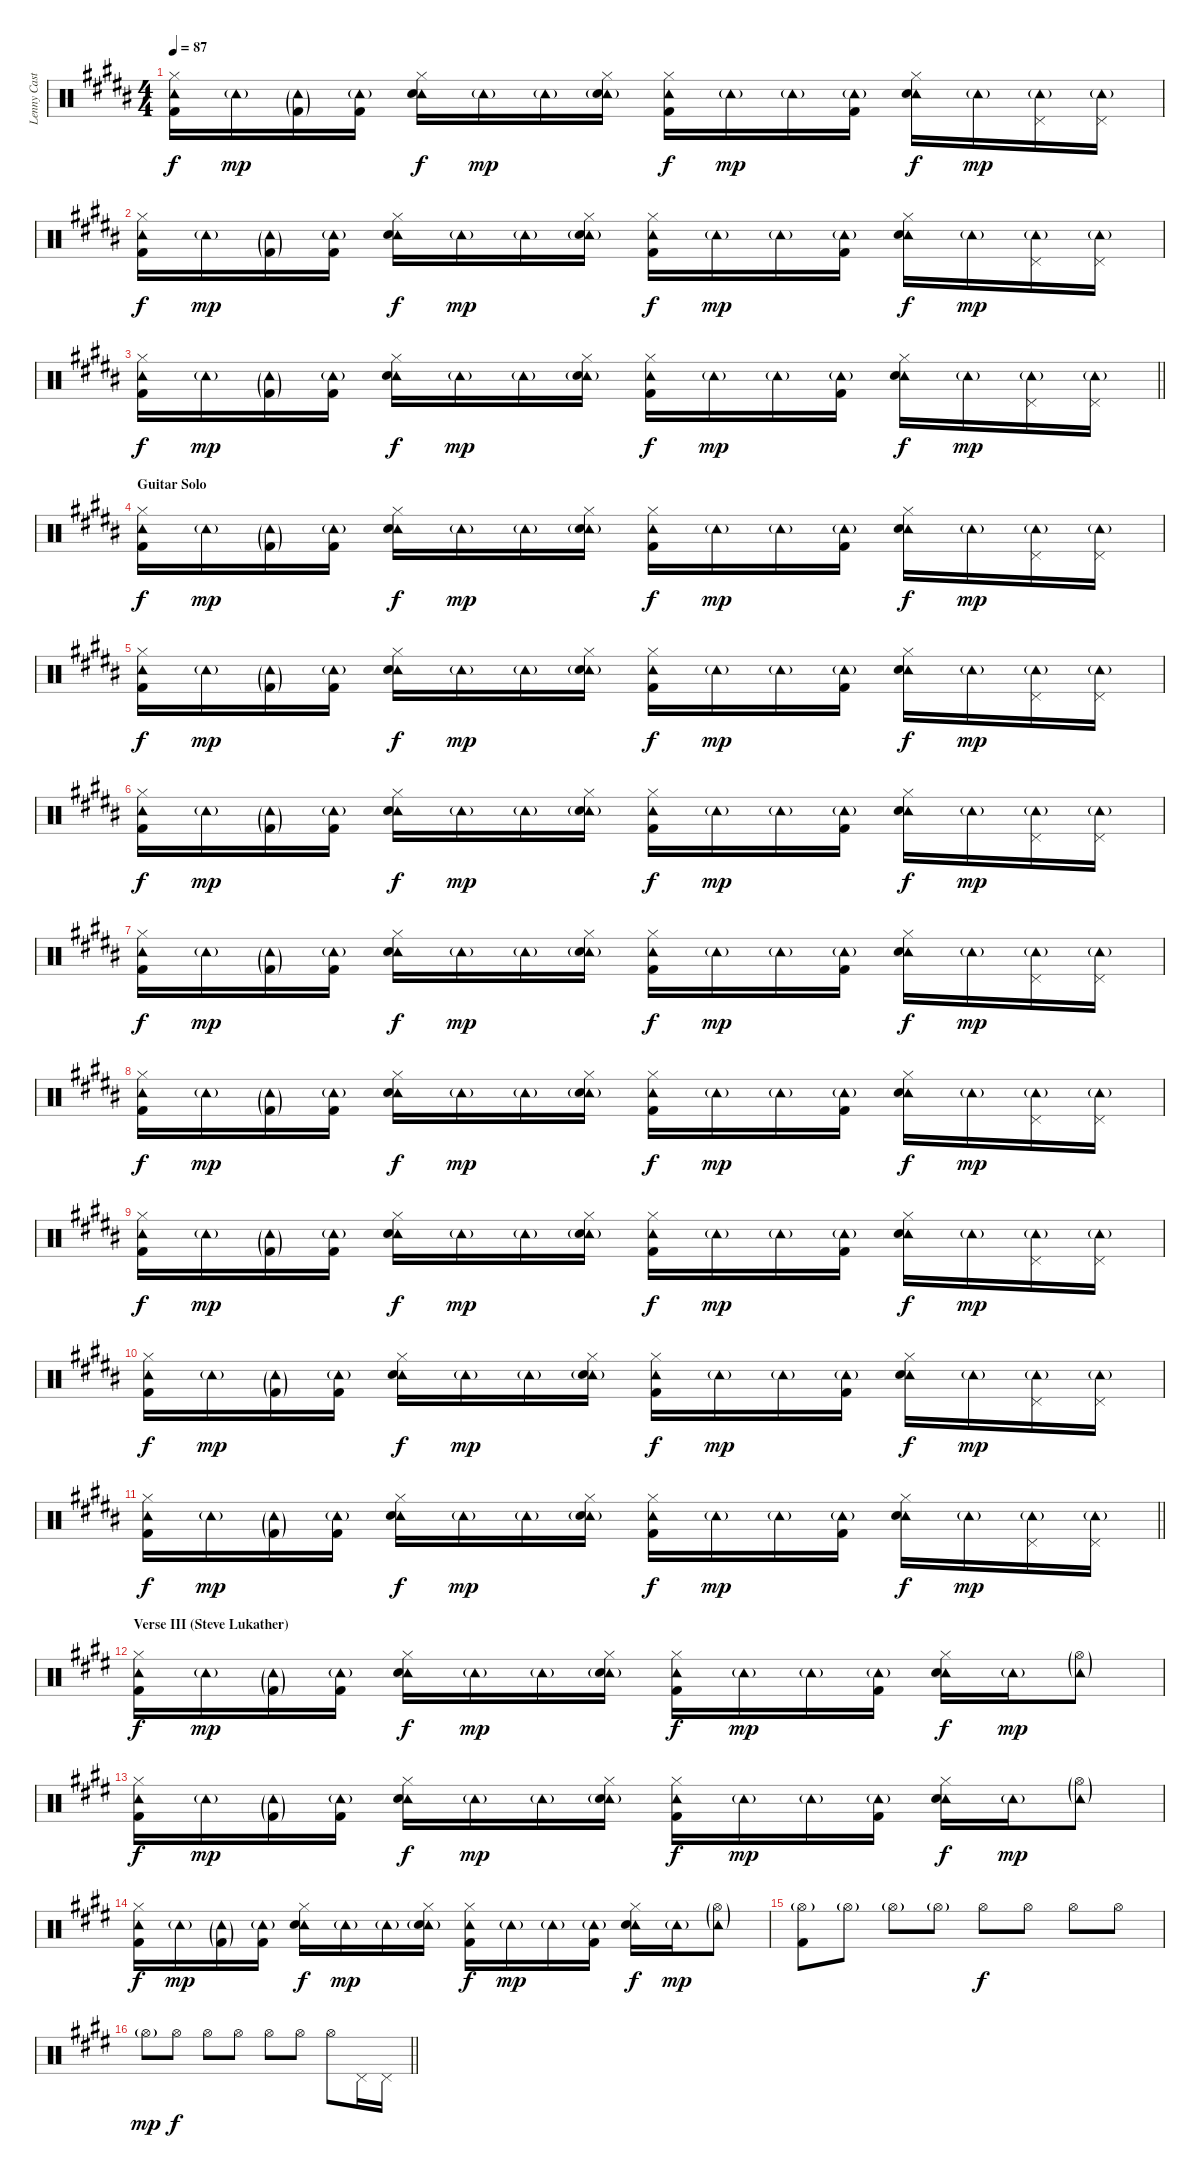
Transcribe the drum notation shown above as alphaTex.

\track ("Lenny Castro (Drums)" "Lenny Cast") {instrument percussion}
\staff {score}
\articulation defaults
\ts (4 4)
\tempo 87
\clef neutral
\ks b
("Hi-Hat (closed)" "Tambourine (hit)" "Kick (hit) 2").16{dy f} "Tambourine (hit)"{g}.16{dy mp} ("Tambourine (hit)"{g} "Kick (hit) 2"{g}).16 ("Tambourine (hit)"{g} "Kick (hit) 2").16 ("Hi-Hat (closed)" "Tambourine (hit)" "Electric Snare (hit)").16{dy f} "Tambourine (hit)"{g}.16{dy mp} "Tambourine (hit)"{g}.16 ("Hi-Hat (closed)" "Tambourine (hit)"{g} "Electric Snare (hit)"{g}).16 ("Hi-Hat (closed)" "Tambourine (hit)" "Kick (hit) 2").16{dy f} "Tambourine (hit)"{g}.16{dy mp} "Tambourine (hit)"{g}.16 ("Tambourine (hit)"{g} "Kick (hit) 2").16 ("Hi-Hat (closed)" "Tambourine (hit)" "Electric Snare (hit)").16{dy f} "Tambourine (hit)"{g}.16{dy mp} ("Pedal Hi-Hat (hit)" "Tambourine (hit)"{g}).16 ("Pedal Hi-Hat (hit)" "Tambourine (hit)"{g}).16 |
("Hi-Hat (closed)" "Tambourine (hit)" "Kick (hit) 2").16{dy f} "Tambourine (hit)"{g}.16{dy mp} ("Tambourine (hit)"{g} "Kick (hit) 2"{g}).16 ("Tambourine (hit)"{g} "Kick (hit) 2").16 ("Hi-Hat (closed)" "Tambourine (hit)" "Electric Snare (hit)").16{dy f} "Tambourine (hit)"{g}.16{dy mp} "Tambourine (hit)"{g}.16 ("Hi-Hat (closed)" "Tambourine (hit)"{g} "Electric Snare (hit)"{g}).16 ("Hi-Hat (closed)" "Tambourine (hit)" "Kick (hit) 2").16{dy f} "Tambourine (hit)"{g}.16{dy mp} "Tambourine (hit)"{g}.16 ("Tambourine (hit)"{g} "Kick (hit) 2").16 ("Hi-Hat (closed)" "Tambourine (hit)" "Electric Snare (hit)").16{dy f} "Tambourine (hit)"{g}.16{dy mp} ("Pedal Hi-Hat (hit)" "Tambourine (hit)"{g}).16 ("Pedal Hi-Hat (hit)" "Tambourine (hit)"{g}).16 |
\barLineRight lightlight
("Hi-Hat (closed)" "Tambourine (hit)" "Kick (hit) 2").16{dy f} "Tambourine (hit)"{g}.16{dy mp} ("Tambourine (hit)"{g} "Kick (hit) 2"{g}).16 ("Tambourine (hit)"{g} "Kick (hit) 2").16 ("Hi-Hat (closed)" "Tambourine (hit)" "Electric Snare (hit)").16{dy f} "Tambourine (hit)"{g}.16{dy mp} "Tambourine (hit)"{g}.16 ("Hi-Hat (closed)" "Tambourine (hit)"{g} "Electric Snare (hit)"{g}).16 ("Hi-Hat (closed)" "Tambourine (hit)" "Kick (hit) 2").16{dy f} "Tambourine (hit)"{g}.16{dy mp} "Tambourine (hit)"{g}.16 ("Tambourine (hit)"{g} "Kick (hit) 2").16 ("Hi-Hat (closed)" "Tambourine (hit)" "Electric Snare (hit)").16{dy f} "Tambourine (hit)"{g}.16{dy mp} ("Pedal Hi-Hat (hit)" "Tambourine (hit)"{g}).16 ("Pedal Hi-Hat (hit)" "Tambourine (hit)"{g}).16 |
\section ("" "Guitar Solo")
("Hi-Hat (closed)" "Tambourine (hit)" "Kick (hit) 2").16{dy f} "Tambourine (hit)"{g}.16{dy mp} ("Tambourine (hit)"{g} "Kick (hit) 2"{g}).16 ("Tambourine (hit)"{g} "Kick (hit) 2").16 ("Hi-Hat (closed)" "Tambourine (hit)" "Electric Snare (hit)").16{dy f} "Tambourine (hit)"{g}.16{dy mp} "Tambourine (hit)"{g}.16 ("Hi-Hat (closed)" "Tambourine (hit)"{g} "Electric Snare (hit)"{g}).16 ("Hi-Hat (closed)" "Tambourine (hit)" "Kick (hit) 2").16{dy f} "Tambourine (hit)"{g}.16{dy mp} "Tambourine (hit)"{g}.16 ("Tambourine (hit)"{g} "Kick (hit) 2").16 ("Hi-Hat (closed)" "Tambourine (hit)" "Electric Snare (hit)").16{dy f} "Tambourine (hit)"{g}.16{dy mp} ("Pedal Hi-Hat (hit)" "Tambourine (hit)"{g}).16 ("Pedal Hi-Hat (hit)" "Tambourine (hit)"{g}).16 |
("Hi-Hat (closed)" "Tambourine (hit)" "Kick (hit) 2").16{dy f} "Tambourine (hit)"{g}.16{dy mp} ("Tambourine (hit)"{g} "Kick (hit) 2"{g}).16 ("Tambourine (hit)"{g} "Kick (hit) 2").16 ("Hi-Hat (closed)" "Tambourine (hit)" "Electric Snare (hit)").16{dy f} "Tambourine (hit)"{g}.16{dy mp} "Tambourine (hit)"{g}.16 ("Hi-Hat (closed)" "Tambourine (hit)"{g} "Electric Snare (hit)"{g}).16 ("Hi-Hat (closed)" "Tambourine (hit)" "Kick (hit) 2").16{dy f} "Tambourine (hit)"{g}.16{dy mp} "Tambourine (hit)"{g}.16 ("Tambourine (hit)"{g} "Kick (hit) 2").16 ("Hi-Hat (closed)" "Tambourine (hit)" "Electric Snare (hit)").16{dy f} "Tambourine (hit)"{g}.16{dy mp} ("Pedal Hi-Hat (hit)" "Tambourine (hit)"{g}).16 ("Pedal Hi-Hat (hit)" "Tambourine (hit)"{g}).16 |
("Hi-Hat (closed)" "Tambourine (hit)" "Kick (hit) 2").16{dy f} "Tambourine (hit)"{g}.16{dy mp} ("Tambourine (hit)"{g} "Kick (hit) 2"{g}).16 ("Tambourine (hit)"{g} "Kick (hit) 2").16 ("Hi-Hat (closed)" "Tambourine (hit)" "Electric Snare (hit)").16{dy f} "Tambourine (hit)"{g}.16{dy mp} "Tambourine (hit)"{g}.16 ("Hi-Hat (closed)" "Tambourine (hit)"{g} "Electric Snare (hit)"{g}).16 ("Hi-Hat (closed)" "Tambourine (hit)" "Kick (hit) 2").16{dy f} "Tambourine (hit)"{g}.16{dy mp} "Tambourine (hit)"{g}.16 ("Tambourine (hit)"{g} "Kick (hit) 2").16 ("Hi-Hat (closed)" "Tambourine (hit)" "Electric Snare (hit)").16{dy f} "Tambourine (hit)"{g}.16{dy mp} ("Pedal Hi-Hat (hit)" "Tambourine (hit)"{g}).16 ("Pedal Hi-Hat (hit)" "Tambourine (hit)"{g}).16 |
("Hi-Hat (closed)" "Tambourine (hit)" "Kick (hit) 2").16{dy f} "Tambourine (hit)"{g}.16{dy mp} ("Tambourine (hit)"{g} "Kick (hit) 2"{g}).16 ("Tambourine (hit)"{g} "Kick (hit) 2").16 ("Hi-Hat (closed)" "Tambourine (hit)" "Electric Snare (hit)").16{dy f} "Tambourine (hit)"{g}.16{dy mp} "Tambourine (hit)"{g}.16 ("Hi-Hat (closed)" "Tambourine (hit)"{g} "Electric Snare (hit)"{g}).16 ("Hi-Hat (closed)" "Tambourine (hit)" "Kick (hit) 2").16{dy f} "Tambourine (hit)"{g}.16{dy mp} "Tambourine (hit)"{g}.16 ("Tambourine (hit)"{g} "Kick (hit) 2").16 ("Hi-Hat (closed)" "Tambourine (hit)" "Electric Snare (hit)").16{dy f} "Tambourine (hit)"{g}.16{dy mp} ("Pedal Hi-Hat (hit)" "Tambourine (hit)"{g}).16 ("Pedal Hi-Hat (hit)" "Tambourine (hit)"{g}).16 |
("Hi-Hat (closed)" "Tambourine (hit)" "Kick (hit) 2").16{dy f} "Tambourine (hit)"{g}.16{dy mp} ("Tambourine (hit)"{g} "Kick (hit) 2"{g}).16 ("Tambourine (hit)"{g} "Kick (hit) 2").16 ("Hi-Hat (closed)" "Tambourine (hit)" "Electric Snare (hit)").16{dy f} "Tambourine (hit)"{g}.16{dy mp} "Tambourine (hit)"{g}.16 ("Hi-Hat (closed)" "Tambourine (hit)"{g} "Electric Snare (hit)"{g}).16 ("Hi-Hat (closed)" "Tambourine (hit)" "Kick (hit) 2").16{dy f} "Tambourine (hit)"{g}.16{dy mp} "Tambourine (hit)"{g}.16 ("Tambourine (hit)"{g} "Kick (hit) 2").16 ("Hi-Hat (closed)" "Tambourine (hit)" "Electric Snare (hit)").16{dy f} "Tambourine (hit)"{g}.16{dy mp} ("Pedal Hi-Hat (hit)" "Tambourine (hit)"{g}).16 ("Pedal Hi-Hat (hit)" "Tambourine (hit)"{g}).16 |
("Hi-Hat (closed)" "Tambourine (hit)" "Kick (hit) 2").16{dy f} "Tambourine (hit)"{g}.16{dy mp} ("Tambourine (hit)"{g} "Kick (hit) 2"{g}).16 ("Tambourine (hit)"{g} "Kick (hit) 2").16 ("Hi-Hat (closed)" "Tambourine (hit)" "Electric Snare (hit)").16{dy f} "Tambourine (hit)"{g}.16{dy mp} "Tambourine (hit)"{g}.16 ("Hi-Hat (closed)" "Tambourine (hit)"{g} "Electric Snare (hit)"{g}).16 ("Hi-Hat (closed)" "Tambourine (hit)" "Kick (hit) 2").16{dy f} "Tambourine (hit)"{g}.16{dy mp} "Tambourine (hit)"{g}.16 ("Tambourine (hit)"{g} "Kick (hit) 2").16 ("Hi-Hat (closed)" "Tambourine (hit)" "Electric Snare (hit)").16{dy f} "Tambourine (hit)"{g}.16{dy mp} ("Pedal Hi-Hat (hit)" "Tambourine (hit)"{g}).16 ("Pedal Hi-Hat (hit)" "Tambourine (hit)"{g}).16 |
("Hi-Hat (closed)" "Tambourine (hit)" "Kick (hit) 2").16{dy f} "Tambourine (hit)"{g}.16{dy mp} ("Tambourine (hit)"{g} "Kick (hit) 2"{g}).16 ("Tambourine (hit)"{g} "Kick (hit) 2").16 ("Hi-Hat (closed)" "Tambourine (hit)" "Electric Snare (hit)").16{dy f} "Tambourine (hit)"{g}.16{dy mp} "Tambourine (hit)"{g}.16 ("Hi-Hat (closed)" "Tambourine (hit)"{g} "Electric Snare (hit)"{g}).16 ("Hi-Hat (closed)" "Tambourine (hit)" "Kick (hit) 2").16{dy f} "Tambourine (hit)"{g}.16{dy mp} "Tambourine (hit)"{g}.16 ("Tambourine (hit)"{g} "Kick (hit) 2").16 ("Hi-Hat (closed)" "Tambourine (hit)" "Electric Snare (hit)").16{dy f} "Tambourine (hit)"{g}.16{dy mp} ("Pedal Hi-Hat (hit)" "Tambourine (hit)"{g}).16 ("Pedal Hi-Hat (hit)" "Tambourine (hit)"{g}).16 |
\barLineRight lightlight
("Hi-Hat (closed)" "Tambourine (hit)" "Kick (hit) 2").16{dy f} "Tambourine (hit)"{g}.16{dy mp} ("Tambourine (hit)"{g} "Kick (hit) 2"{g}).16 ("Tambourine (hit)"{g} "Kick (hit) 2").16 ("Hi-Hat (closed)" "Tambourine (hit)" "Electric Snare (hit)").16{dy f} "Tambourine (hit)"{g}.16{dy mp} "Tambourine (hit)"{g}.16 ("Hi-Hat (closed)" "Tambourine (hit)"{g} "Electric Snare (hit)"{g}).16 ("Hi-Hat (closed)" "Tambourine (hit)" "Kick (hit) 2").16{dy f} "Tambourine (hit)"{g}.16{dy mp} "Tambourine (hit)"{g}.16 ("Tambourine (hit)"{g} "Kick (hit) 2").16 ("Hi-Hat (closed)" "Tambourine (hit)" "Electric Snare (hit)").16{dy f} "Tambourine (hit)"{g}.16{dy mp} ("Pedal Hi-Hat (hit)" "Tambourine (hit)"{g}).16 ("Pedal Hi-Hat (hit)" "Tambourine (hit)"{g}).16 |
\section ("" "Verse III (Steve Lukather)")
\ks e
("Hi-Hat (closed)" "Tambourine (hit)" "Kick (hit) 2").16{dy f} "Tambourine (hit)"{g}.16{dy mp} ("Tambourine (hit)"{g} "Kick (hit) 2"{g}).16 ("Tambourine (hit)"{g} "Kick (hit) 2").16 ("Hi-Hat (closed)" "Tambourine (hit)" "Electric Snare (hit)").16{dy f} "Tambourine (hit)"{g}.16{dy mp} "Tambourine (hit)"{g}.16 ("Hi-Hat (closed)" "Tambourine (hit)"{g} "Electric Snare (hit)"{g}).16 ("Hi-Hat (closed)" "Tambourine (hit)" "Kick (hit) 2").16{dy f} "Tambourine (hit)"{g}.16{dy mp} "Tambourine (hit)"{g}.16 ("Tambourine (hit)"{g} "Kick (hit) 2").16 ("Hi-Hat (closed)" "Tambourine (hit)" "Electric Snare (hit)").16{dy f} "Tambourine (hit)"{g}.16{dy mp} ("Hi-Hat (open)"{g} "Tambourine (hit)"{g}).8 |
("Hi-Hat (closed)" "Tambourine (hit)" "Kick (hit) 2").16{dy f} "Tambourine (hit)"{g}.16{dy mp} ("Tambourine (hit)"{g} "Kick (hit) 2"{g}).16 ("Tambourine (hit)"{g} "Kick (hit) 2").16 ("Hi-Hat (closed)" "Tambourine (hit)" "Electric Snare (hit)").16{dy f} "Tambourine (hit)"{g}.16{dy mp} "Tambourine (hit)"{g}.16 ("Hi-Hat (closed)" "Tambourine (hit)"{g} "Electric Snare (hit)"{g}).16 ("Hi-Hat (closed)" "Tambourine (hit)" "Kick (hit) 2").16{dy f} "Tambourine (hit)"{g}.16{dy mp} "Tambourine (hit)"{g}.16 ("Tambourine (hit)"{g} "Kick (hit) 2").16 ("Hi-Hat (closed)" "Tambourine (hit)" "Electric Snare (hit)").16{dy f} "Tambourine (hit)"{g}.16{dy mp} ("Hi-Hat (open)"{g} "Tambourine (hit)"{g}).8 |
("Hi-Hat (closed)" "Tambourine (hit)" "Kick (hit) 2").16{dy f} "Tambourine (hit)"{g}.16{dy mp} ("Tambourine (hit)"{g} "Kick (hit) 2"{g}).16 ("Tambourine (hit)"{g} "Kick (hit) 2").16 ("Hi-Hat (closed)" "Tambourine (hit)" "Electric Snare (hit)").16{dy f} "Tambourine (hit)"{g}.16{dy mp} "Tambourine (hit)"{g}.16 ("Hi-Hat (closed)" "Tambourine (hit)"{g} "Electric Snare (hit)"{g}).16 ("Hi-Hat (closed)" "Tambourine (hit)" "Kick (hit) 2").16{dy f} "Tambourine (hit)"{g}.16{dy mp} "Tambourine (hit)"{g}.16 ("Tambourine (hit)"{g} "Kick (hit) 2").16 ("Hi-Hat (closed)" "Tambourine (hit)" "Electric Snare (hit)").16{dy f} "Tambourine (hit)"{g}.16{dy mp} ("Hi-Hat (open)"{g} "Tambourine (hit)"{g}).8 |
("Hi-Hat (open)"{g} "Kick (hit) 2").8 "Hi-Hat (open)"{g}.8 "Hi-Hat (open)"{g}.8 "Hi-Hat (open)"{g}.8 "Hi-Hat (open)".8{dy f} "Hi-Hat (open)".8 "Hi-Hat (open)".8 "Hi-Hat (open)".8 |
\barLineRight lightlight "Hi-Hat (open)"{g}.8{dy mp} "Hi-Hat (open)".8{dy f} "Hi-Hat (open)".8 "Hi-Hat (open)".8 "Hi-Hat (open)".8 "Hi-Hat (open)".8 "Hi-Hat (open)".8 "Pedal Hi-Hat (hit)".16 "Pedal Hi-Hat (hit)".16
